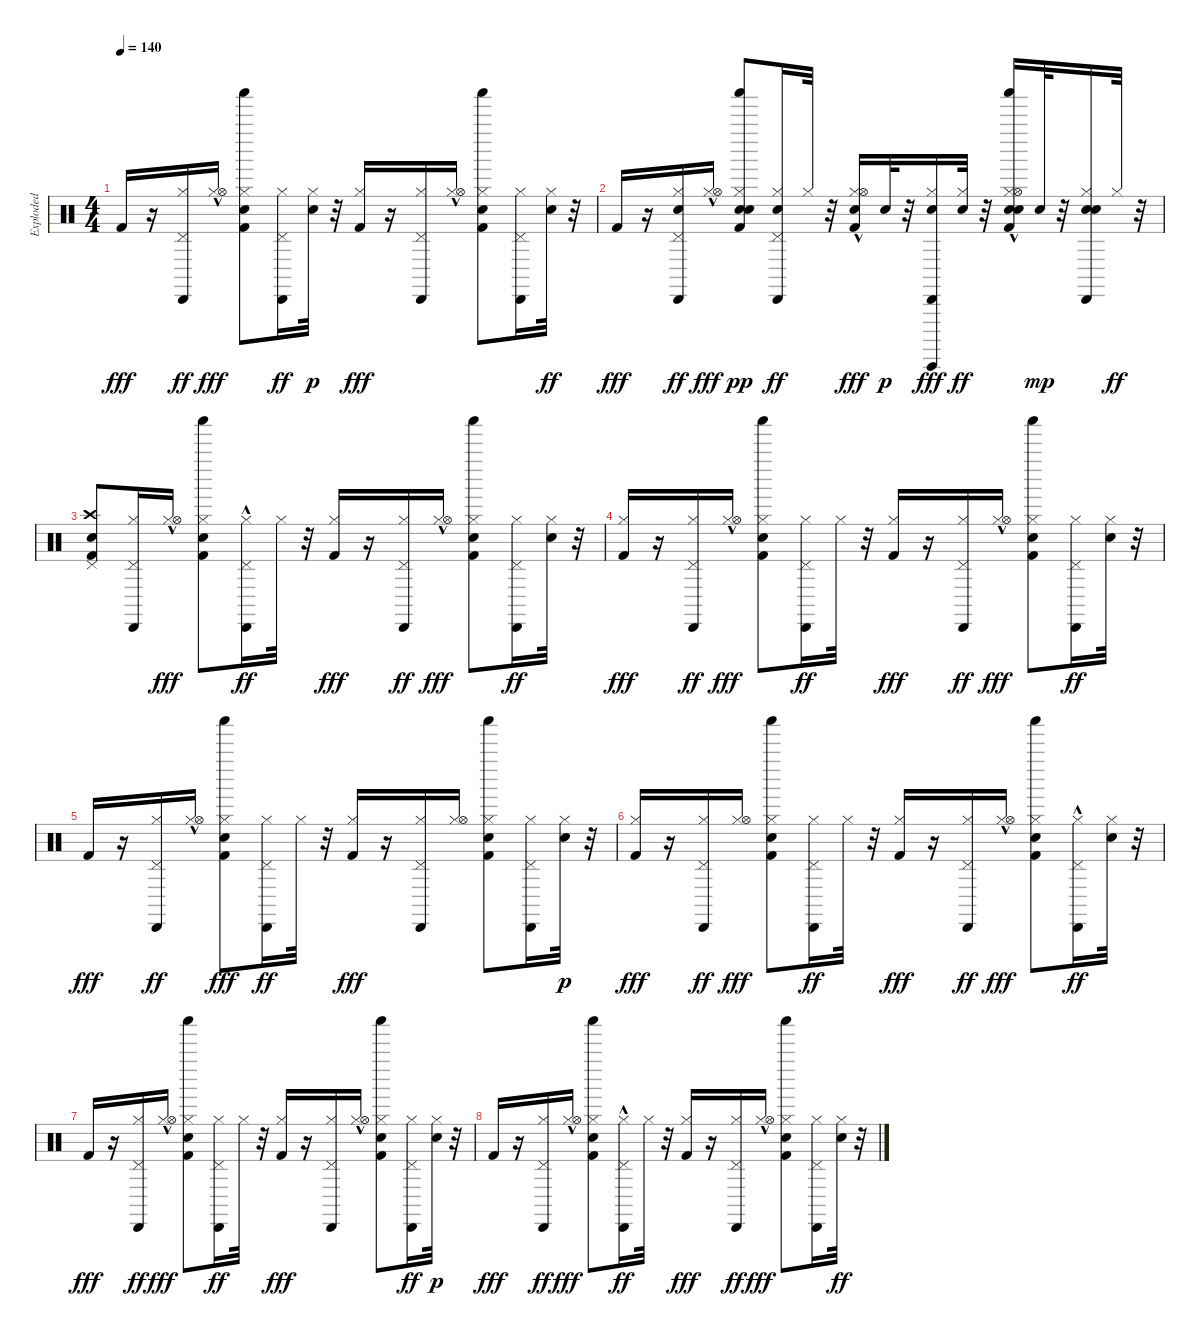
\track ("Exploded" "Exploded") {instrument percussion}
\staff {score}
\articulation defaults
\ts (4 4)
\tempo 140
\clef neutral
\ks c "Kick (hit) 2".16{dy fff}
r.16 ("Cabasa (hit)" "Hi-Hat (closed)" "Pedal Hi-Hat (hit)").16{dy ff} ("Hi-Hat (closed)" "Hi-Hat (open)"{hac}).16{dy fff} ("Hand Clap (hit)" "Shaker (hit)" "Hi-Hat (closed)" "Kick (hit) 2").8 ("Cabasa (hit)" "Hi-Hat (closed)" "Pedal Hi-Hat (hit)").16{dy ff} ("Hi-Hat (closed)" "Snare (hit) 2").32{dy p} r.32 ("Hi-Hat (closed)" "Kick (hit) 2").16{dy fff} r.16 ("Cabasa (hit)" "Hi-Hat (closed)" "Pedal Hi-Hat (hit)").16 ("Hi-Hat (closed)" "Hi-Hat (open)"{hac}).16 ("Hand Clap (hit)" "Shaker (hit)" "Hi-Hat (closed)" "Kick (hit) 2").8 ("Cabasa (hit)" "Hi-Hat (closed)" "Pedal Hi-Hat (hit)").16 ("Snare (hit) 2" "Hi-Hat (closed)").32{dy ff} r.32 |
"Kick (hit) 2".16{dy fff} r.16 ("Cabasa (hit)" "Hi-Hat (closed)" "Snare (hit) 2" "Pedal Hi-Hat (hit)").16{dy ff} ("Hi-Hat (closed)" "Hi-Hat (open)"{hac}).16{dy fff} ("Hand Clap (hit)" "Shaker (hit)" "Hi-Hat (closed)" "Kick (hit) 2" "Snare (hit) 2").8{dy pp} ("Cabasa (hit)" "Hi-Hat (closed)" "Snare (hit) 2" "Pedal Hi-Hat (hit)").16{dy ff} "Hi-Hat (closed)".32 r.32 ("Hi-Hat (closed)" "Kick (hit) 2" "Snare (hit) 2" "Hi-Hat (open)"{hac}).16{dy fff} "Snare (hit) 2".32{dy p} r.32 ("Guiro (hit)" "Snare (hit) 2" "Cabasa (hit)" "Hi-Hat (closed)").16{dy fff} ("Snare (hit) 2" "Hi-Hat (closed)").32{dy ff} r.32 ("Snare (hit) 2" "Hand Clap (hit)" "Shaker (hit)" "Hi-Hat (closed)" "Kick (hit) 2" "Hi-Hat (open)"{hac}).16 "Snare (hit) 2".32{dy mp} r.32 ("Snare (hit) 2" "Cabasa (hit)" "Hi-Hat (closed)" "Snare (hit) 2").16 "Hi-Hat (closed)".32{dy ff} r.32 |
("Snare (hit) 2" "Crash high (hit)" "Kick (hit) 2" "Pedal Hi-Hat (hit)").8 ("Cabasa (hit)" "Hi-Hat (closed)" "Pedal Hi-Hat (hit)").16 ("Hi-Hat (closed)" "Hi-Hat (open)"{hac}).16{dy fff} ("Hand Clap (hit)" "Shaker (hit)" "Hi-Hat (closed)" "Kick (hit) 2").8 ("Cabasa (hit)"{hac} "Hi-Hat (closed)" "Pedal Hi-Hat (hit)").16{dy ff} "Hi-Hat (closed)".32 r.32 ("Hi-Hat (closed)" "Kick (hit) 2").16{dy fff} r.16 ("Cabasa (hit)" "Hi-Hat (closed)" "Pedal Hi-Hat (hit)").16{dy ff} ("Hi-Hat (closed)" "Hi-Hat (open)"{hac}).16{dy fff} ("Hand Clap (hit)" "Shaker (hit)" "Hi-Hat (closed)" "Kick (hit) 2").8 ("Cabasa (hit)" "Hi-Hat (closed)" "Pedal Hi-Hat (hit)").16{dy ff} ("Snare (hit) 2" "Hi-Hat (closed)").32 r.32 |
("Hi-Hat (closed)" "Kick (hit) 2").16{dy fff} r.16 ("Cabasa (hit)" "Hi-Hat (closed)" "Pedal Hi-Hat (hit)").16{dy ff} ("Hi-Hat (closed)" "Hi-Hat (open)"{hac}).16{dy fff} ("Hand Clap (hit)" "Shaker (hit)" "Hi-Hat (closed)" "Kick (hit) 2").8 ("Cabasa (hit)" "Hi-Hat (closed)" "Pedal Hi-Hat (hit)").16{dy ff} "Hi-Hat (closed)".32 r.32 ("Hi-Hat (closed)" "Kick (hit) 2").16{dy fff} r.16 ("Cabasa (hit)" "Hi-Hat (closed)" "Pedal Hi-Hat (hit)").16{dy ff} ("Hi-Hat (closed)" "Hi-Hat (open)"{hac}).16{dy fff} ("Hand Clap (hit)" "Shaker (hit)" "Hi-Hat (closed)" "Kick (hit) 2").8 ("Cabasa (hit)" "Hi-Hat (closed)" "Pedal Hi-Hat (hit)").16{dy ff} ("Snare (hit) 2" "Hi-Hat (closed)").32 r.32 |
"Kick (hit) 2".16{dy fff} r.16 ("Cabasa (hit)" "Hi-Hat (closed)" "Pedal Hi-Hat (hit)").16{dy ff} ("Hi-Hat (closed)" "Hi-Hat (open)"{hac}).16 ("Hand Clap (hit)" "Shaker (hit)" "Hi-Hat (closed)" "Kick (hit) 2").8{dy fff} ("Cabasa (hit)" "Hi-Hat (closed)" "Pedal Hi-Hat (hit)").16{dy ff} "Hi-Hat (closed)".32 r.32 ("Hi-Hat (closed)" "Kick (hit) 2").16{dy fff} r.16 ("Cabasa (hit)" "Hi-Hat (closed)" "Pedal Hi-Hat (hit)").16 ("Hi-Hat (closed)" "Hi-Hat (open)").16 ("Hand Clap (hit)" "Shaker (hit)" "Hi-Hat (closed)" "Kick (hit) 2").8 ("Cabasa (hit)" "Hi-Hat (closed)" "Pedal Hi-Hat (hit)").16 ("Hi-Hat (closed)" "Snare (hit) 2").32{dy p} r.32 |
("Hi-Hat (closed)" "Kick (hit) 2").16{dy fff} r.16 ("Cabasa (hit)" "Hi-Hat (closed)" "Pedal Hi-Hat (hit)").16{dy ff} ("Hi-Hat (closed)" "Hi-Hat (open)").16{dy fff} ("Hand Clap (hit)" "Shaker (hit)" "Hi-Hat (closed)" "Kick (hit) 2").8 ("Cabasa (hit)" "Hi-Hat (closed)" "Pedal Hi-Hat (hit)").16{dy ff} "Hi-Hat (closed)".32 r.32 ("Hi-Hat (closed)" "Kick (hit) 2").16{dy fff} r.16 ("Cabasa (hit)" "Hi-Hat (closed)" "Pedal Hi-Hat (hit)").16{dy ff} ("Hi-Hat (closed)" "Hi-Hat (open)"{hac}).16{dy fff} ("Hand Clap (hit)" "Shaker (hit)" "Hi-Hat (closed)" "Kick (hit) 2").8 ("Cabasa (hit)"{hac} "Hi-Hat (closed)" "Pedal Hi-Hat (hit)").16{dy ff} ("Snare (hit) 2" "Hi-Hat (closed)").32 r.32 |
"Kick (hit) 2".16{dy fff} r.16 ("Cabasa (hit)" "Hi-Hat (closed)" "Pedal Hi-Hat (hit)").16{dy ff} ("Hi-Hat (closed)" "Hi-Hat (open)"{hac}).16{dy fff} ("Hand Clap (hit)" "Shaker (hit)" "Hi-Hat (closed)" "Kick (hit) 2").8 ("Cabasa (hit)" "Hi-Hat (closed)" "Pedal Hi-Hat (hit)").16{dy ff} "Hi-Hat (closed)".32 r.32 ("Hi-Hat (closed)" "Kick (hit) 2").16{dy fff} r.16 ("Cabasa (hit)" "Hi-Hat (closed)" "Pedal Hi-Hat (hit)").16 ("Hi-Hat (closed)" "Hi-Hat (open)"{hac}).16 ("Hand Clap (hit)" "Shaker (hit)" "Hi-Hat (closed)" "Kick (hit) 2").8 ("Cabasa (hit)" "Hi-Hat (closed)" "Pedal Hi-Hat (hit)").16{dy ff} ("Hi-Hat (closed)" "Snare (hit) 2").32{dy p} r.32 |
"Kick (hit) 2".16{dy fff} r.16 ("Cabasa (hit)" "Hi-Hat (closed)" "Pedal Hi-Hat (hit)").16{dy ff} ("Hi-Hat (closed)" "Hi-Hat (open)"{hac}).16{dy fff} ("Hand Clap (hit)" "Shaker (hit)" "Hi-Hat (closed)" "Kick (hit) 2").8 ("Cabasa (hit)" "Hi-Hat (closed)" "Pedal Hi-Hat (hit)"{hac}).16{dy ff} "Hi-Hat (closed)".32 r.32 ("Hi-Hat (closed)" "Kick (hit) 2").16{dy fff} r.16 ("Cabasa (hit)" "Hi-Hat (closed)" "Pedal Hi-Hat (hit)").16{dy ff} ("Hi-Hat (closed)" "Hi-Hat (open)"{hac}).16{dy fff} ("Hand Clap (hit)" "Shaker (hit)" "Hi-Hat (closed)" "Kick (hit) 2").8 ("Cabasa (hit)" "Hi-Hat (closed)" "Pedal Hi-Hat (hit)").16 ("Snare (hit) 2" "Hi-Hat (closed)").32{dy ff} r.32
